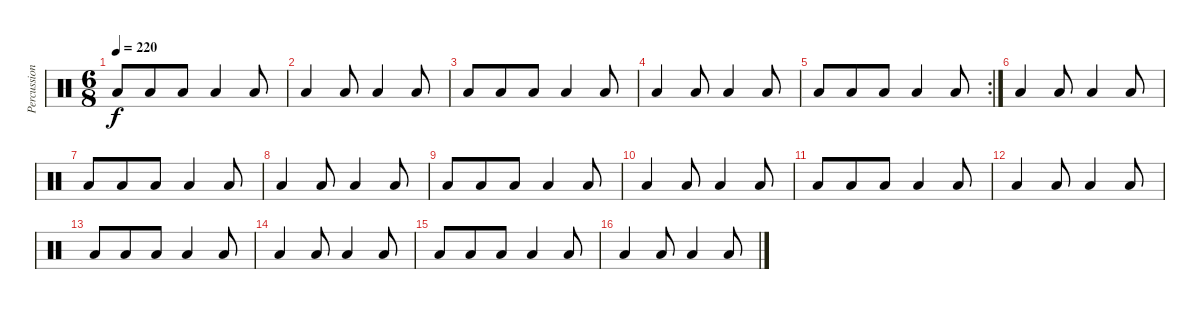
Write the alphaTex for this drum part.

\track ("Percussion" "Percussion") {instrument percussion}
\staff {score}
\articulation defaults
\ts (6 8)
\tempo 220
\clef neutral
\ks c "Low Floor Tom (hit)".8{dy f} "Low Floor Tom (hit)".8 "Low Floor Tom (hit)".8 "Low Tom (hit)".4 "Low Tom (hit)".8
|
"Low Floor Tom (hit)".4 "Low Floor Tom (hit)".8 "Low Tom (hit)".4 "Low Tom (hit)".8 |
"Low Floor Tom (hit)".8 "Low Floor Tom (hit)".8 "Low Floor Tom (hit)".8 "Low Tom (hit)".4 "Low Tom (hit)".8 |
"Low Floor Tom (hit)".4 "Low Floor Tom (hit)".8 "Low Tom (hit)".4 "Low Tom (hit)".8 |
\rc 2 "Low Floor Tom (hit)".8 "Low Floor Tom (hit)".8 "Low Floor Tom (hit)".8 "Low Tom (hit)".4 "Low Tom (hit)".8
|
"Low Floor Tom (hit)".4 "Low Floor Tom (hit)".8 "Low Tom (hit)".4 "Low Tom (hit)".8 |
"Low Floor Tom (hit)".8 "Low Floor Tom (hit)".8 "Low Floor Tom (hit)".8 "Low Tom (hit)".4 "Low Tom (hit)".8 |
"Low Floor Tom (hit)".4 "Low Floor Tom (hit)".8 "Low Tom (hit)".4 "Low Tom (hit)".8 |
"Low Floor Tom (hit)".8 "Low Floor Tom (hit)".8 "Low Floor Tom (hit)".8 "Low Tom (hit)".4 "Low Tom (hit)".8 |
"Low Floor Tom (hit)".4 "Low Floor Tom (hit)".8 "Low Tom (hit)".4 "Low Tom (hit)".8 |
"Low Floor Tom (hit)".8 "Low Floor Tom (hit)".8 "Low Floor Tom (hit)".8 "Low Tom (hit)".4 "Low Tom (hit)".8 |
"Low Floor Tom (hit)".4 "Low Floor Tom (hit)".8 "Low Tom (hit)".4 "Low Tom (hit)".8 |
"Low Floor Tom (hit)".8 "Low Floor Tom (hit)".8 "Low Floor Tom (hit)".8 "Low Tom (hit)".4 "Low Tom (hit)".8 |
"Low Floor Tom (hit)".4 "Low Floor Tom (hit)".8 "Low Tom (hit)".4 "Low Tom (hit)".8 |
"Low Floor Tom (hit)".8 "Low Floor Tom (hit)".8 "Low Floor Tom (hit)".8 "Low Tom (hit)".4 "Low Tom (hit)".8 |
"Low Floor Tom (hit)".4 "Low Floor Tom (hit)".8 "Low Tom (hit)".4 "Low Tom (hit)".8
